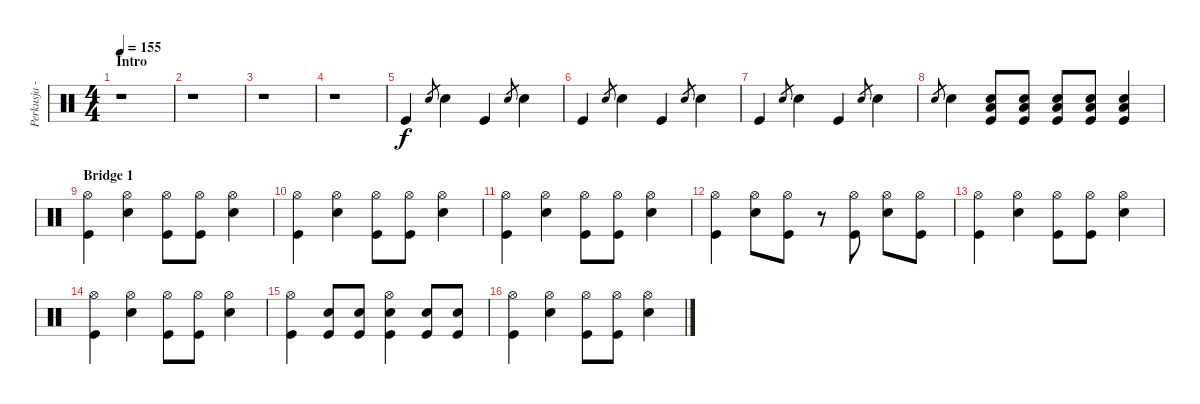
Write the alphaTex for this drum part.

\track ("Perkusja - Mielony" "Perkusja -") {instrument percussion}
\staff {score}
\articulation defaults
\ts (4 4)
\section ("" "Intro")
\tempo 155
\clef neutral
\ks c
r.1{dy f} |
r.1 |
r.1 |
r.1 |
"Kick (hit)".4{volume 9} "Snare (hit) 2".8{gr} "Snare (hit) 2".4{volume 9} "Kick (hit)".4 "Snare (hit) 2".8{gr} "Snare (hit) 2".4 |
"Kick (hit)".4 "Snare (hit) 2".8{gr} "Snare (hit) 2".4 "Kick (hit)".4 "Snare (hit) 2".8{gr} "Snare (hit) 2".4 |
"Kick (hit)".4 "Snare (hit) 2".8{gr} "Snare (hit) 2".4 "Kick (hit)".4 "Snare (hit) 2".8{gr} "Snare (hit) 2".4 |
"Snare (hit) 2".8{gr} "Snare (hit) 2".4 ("Low Tom (hit)" "Snare (hit) 2" "Kick (hit)").8 ("Low Tom (hit)" "Snare (hit) 2" "Kick (hit)").8 ("Low Tom (hit)" "Snare (hit) 2" "Kick (hit)").8 ("Low Tom (hit)" "Snare (hit) 2" "Kick (hit)").8 ("Low Tom (hit)" "Snare (hit) 2" "Kick (hit)").4 |
\section ("" "Bridge 1")
("Hi-Hat (open)" "Kick (hit)").4 ("Snare (hit) 2" "Hi-Hat (open)").4 ("Hi-Hat (open)" "Kick (hit)").8 ("Hi-Hat (open)" "Kick (hit)").8 ("Snare (hit) 2" "Hi-Hat (open)").4 |
("Hi-Hat (open)" "Kick (hit)").4 ("Snare (hit) 2" "Hi-Hat (open)").4 ("Hi-Hat (open)" "Kick (hit)").8 ("Hi-Hat (open)" "Kick (hit)").8 ("Snare (hit) 2" "Hi-Hat (open)").4 |
("Hi-Hat (open)" "Kick (hit)").4 ("Snare (hit) 2" "Hi-Hat (open)").4 ("Hi-Hat (open)" "Kick (hit)").8 ("Hi-Hat (open)" "Kick (hit)").8 ("Snare (hit) 2" "Hi-Hat (open)").4 |
("Hi-Hat (open)" "Kick (hit)").4 ("Snare (hit) 2" "Hi-Hat (open)").8 ("Hi-Hat (open)" "Kick (hit)").8 r.8 ("Hi-Hat (open)" "Kick (hit)").8 ("Snare (hit) 2" "Hi-Hat (open)").8 ("Hi-Hat (open)" "Kick (hit)").8 |
("Hi-Hat (open)" "Kick (hit)").4 ("Snare (hit) 2" "Hi-Hat (open)").4 ("Hi-Hat (open)" "Kick (hit)").8 ("Hi-Hat (open)" "Kick (hit)").8 ("Snare (hit) 2" "Hi-Hat (open)").4 |
("Hi-Hat (open)" "Kick (hit)").4 ("Snare (hit) 2" "Hi-Hat (open)").4 ("Hi-Hat (open)" "Kick (hit)").8 ("Hi-Hat (open)" "Kick (hit)").8 ("Snare (hit) 2" "Hi-Hat (open)").4 |
("Hi-Hat (open)" "Kick (hit)").4 ("Snare (hit) 2" "Kick (hit)").8 ("Snare (hit) 2" "Kick (hit)").8 ("Snare (hit) 2" "Hi-Hat (open)" "Kick (hit)").4 ("Snare (hit) 2" "Kick (hit)").8 ("Snare (hit) 2" "Kick (hit)").8 |
("Hi-Hat (open)" "Kick (hit)").4 ("Snare (hit) 2" "Hi-Hat (open)").4 ("Hi-Hat (open)" "Kick (hit)").8 ("Hi-Hat (open)" "Kick (hit)").8 ("Snare (hit) 2" "Hi-Hat (open)").4
